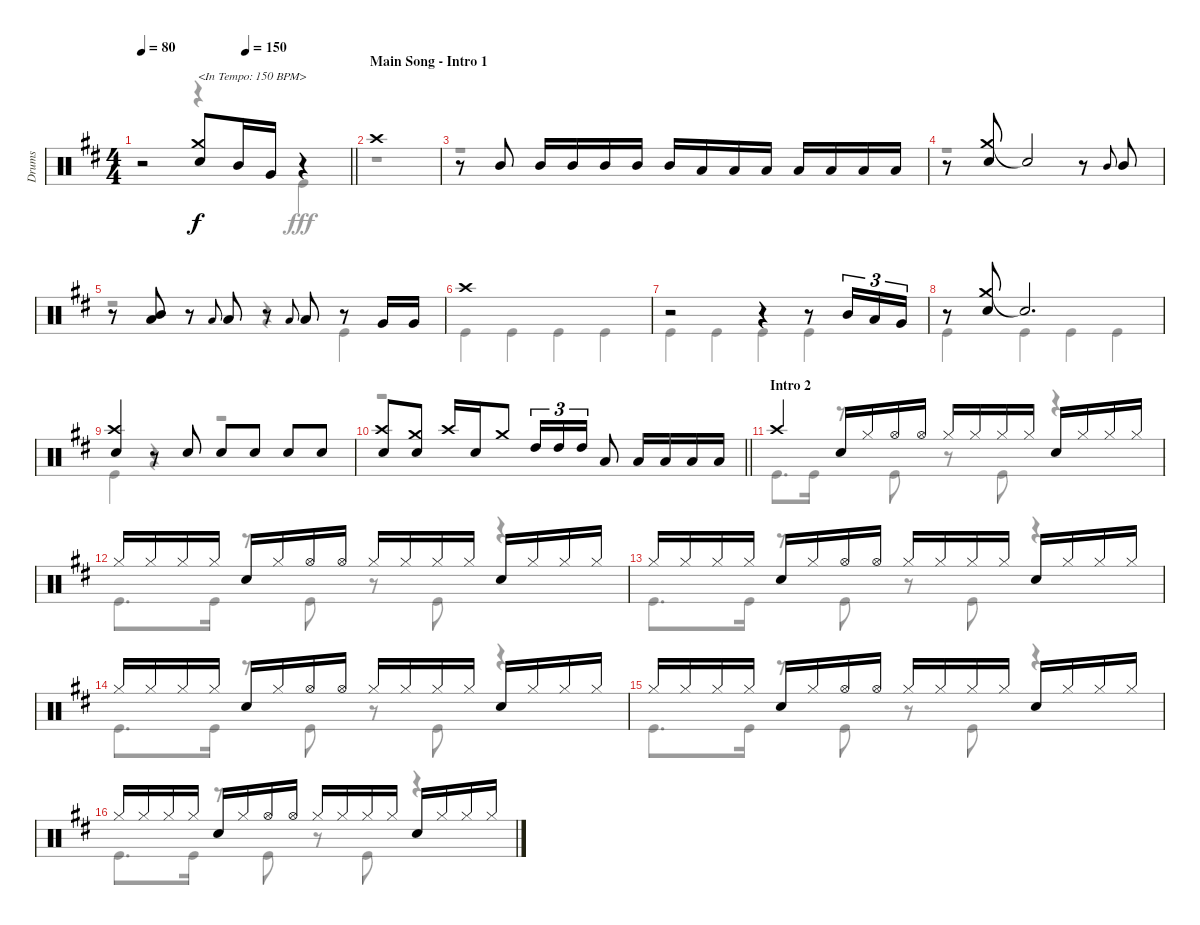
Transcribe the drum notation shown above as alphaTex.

\track ("Drums" "Drums") {instrument percussion}
\staff {score}
\articulation defaults
\voice
\ts (4 4)
\tempo 80
\tempo (150 0.5)
\clef neutral
\barLineRight lightlight
\ks d
r.2{dy f} ("Crash medium (hit)" "Snare (hit) 2").8{txt "<In Tempo: 150 BPM>"} "Mid Tom (hit)".16 "Very Low Tom (hit)".16 r.4 |
\section ("" "Main Song - Intro 1")
"Crash high (hit)".1 |
r.8 "Mid Tom (hit)".8 "Mid Tom (hit)".16 "Mid Tom (hit)".16 "Mid Tom (hit)".16 "Mid Tom (hit)".16 "Mid Tom (hit)".16 "Low Tom (hit)".16 "Low Tom (hit)".16 "Low Tom (hit)".16 "Low Tom (hit)".16 "Low Tom (hit)".16 "Low Tom (hit)".16 "Low Tom (hit)".16 |
r.8 ("Crash medium (hit)" "Snare (hit) 2").8 "Snare (hit)"{t}.2 r.8 "Mid Tom (hit)".8{gr onbeat} "Mid Tom (hit)".8 |
r.8 ("Low Tom (hit)" "Mid Tom (hit)").8 r.8 "Low Tom (hit)".8{gr onbeat} "Low Tom (hit)".8 r.8 "Low Tom (hit)".8{gr onbeat} "Low Tom (hit)".8 r.8 "Very Low Tom (hit)".16 "Very Low Tom (hit)".16 |
"Crash high (hit)".1 |
r.2 r.4 r.8 "Mid Tom (hit)".16{tu (3 2)} "Low Tom (hit)".16{tu (3 2)} "Very Low Tom (hit)".16{tu (3 2)} |
r.8 ("Crash medium (hit)" "Snare (hit) 2").8 "Snare (hit)"{t}.2{d} |
("Crash high (hit)" "Snare (hit) 2").4 r.8 "Snare (hit) 2".8 "Snare (hit) 2".8 "Snare (hit) 2".8 "Snare (hit) 2".8 "Snare (hit) 2".8 |
\barLineRight lightlight
("Crash high (hit)" "Snare (hit) 2").8 ("Crash medium (hit)" "Snare (hit) 2").8 "Crash high (hit)".16 "Snare (hit) 2".16 "Crash medium (hit)".8 "High Tom (hit)".16{tu (3 2)} "High Tom (hit)".16{tu (3 2)} "High Tom (hit)".16{tu (3 2)} "Low Tom (hit)".8 "Low Tom (hit)".16 "Low Tom (hit)".16 "Low Tom (hit)".16 "Low Tom (hit)".16 |
\section ("" "Intro 2")
"Crash high (hit)".4 "Snare (hit) 2".16 "Hi-Hat (closed)".16 "Hi-Hat (open)".16 "Hi-Hat (open)".16 "Hi-Hat (closed)".16 "Hi-Hat (closed)".16 "Hi-Hat (closed)".16 "Hi-Hat (closed)".16 "Snare (hit) 2".16 "Hi-Hat (closed)".16 "Hi-Hat (closed)".16 "Hi-Hat (closed)".16 |
"Hi-Hat (closed)".16 "Hi-Hat (closed)".16 "Hi-Hat (closed)".16 "Hi-Hat (closed)".16 "Snare (hit) 2".16 "Hi-Hat (closed)".16 "Hi-Hat (open)".16 "Hi-Hat (open)".16 "Hi-Hat (closed)".16 "Hi-Hat (closed)".16 "Hi-Hat (closed)".16 "Hi-Hat (closed)".16 "Snare (hit) 2".16 "Hi-Hat (closed)".16 "Hi-Hat (closed)".16 "Hi-Hat (closed)".16 |
"Hi-Hat (closed)".16 "Hi-Hat (closed)".16 "Hi-Hat (closed)".16 "Hi-Hat (closed)".16 "Snare (hit) 2".16 "Hi-Hat (closed)".16 "Hi-Hat (open)".16 "Hi-Hat (open)".16 "Hi-Hat (closed)".16 "Hi-Hat (closed)".16 "Hi-Hat (closed)".16 "Hi-Hat (closed)".16 "Snare (hit) 2".16 "Hi-Hat (closed)".16 "Hi-Hat (closed)".16 "Hi-Hat (closed)".16 |
"Hi-Hat (closed)".16 "Hi-Hat (closed)".16 "Hi-Hat (closed)".16 "Hi-Hat (closed)".16 "Snare (hit) 2".16 "Hi-Hat (closed)".16 "Hi-Hat (open)".16 "Hi-Hat (open)".16 "Hi-Hat (closed)".16 "Hi-Hat (closed)".16 "Hi-Hat (closed)".16 "Hi-Hat (closed)".16 "Snare (hit) 2".16 "Hi-Hat (closed)".16 "Hi-Hat (closed)".16 "Hi-Hat (closed)".16 |
"Hi-Hat (closed)".16 "Hi-Hat (closed)".16 "Hi-Hat (closed)".16 "Hi-Hat (closed)".16 "Snare (hit) 2".16 "Hi-Hat (closed)".16 "Hi-Hat (open)".16 "Hi-Hat (open)".16 "Hi-Hat (closed)".16 "Hi-Hat (closed)".16 "Hi-Hat (closed)".16 "Hi-Hat (closed)".16 "Snare (hit) 2".16 "Hi-Hat (closed)".16 "Hi-Hat (closed)".16 "Hi-Hat (closed)".16 |
"Hi-Hat (closed)".16 "Hi-Hat (closed)".16 "Hi-Hat (closed)".16 "Hi-Hat (closed)".16 "Snare (hit) 2".16 "Hi-Hat (closed)".16 "Hi-Hat (open)".16 "Hi-Hat (open)".16 "Hi-Hat (closed)".16 "Hi-Hat (closed)".16 "Hi-Hat (closed)".16 "Hi-Hat (closed)".16 "Snare (hit) 2".16 "Hi-Hat (closed)".16 "Hi-Hat (closed)".16 "Hi-Hat (closed)".16
\voice
\clef neutral
\ottava regular
\simile none
\barLineRight lightlight
\ks d
r.2{dy fff} r.4 "Kick (hit)".4 |
r.1 |
r.1 |
r.1 |
r.2 r.4 "Kick (hit)".4 |
"Kick (hit)".4 "Kick (hit)".4 "Kick (hit)".4 "Kick (hit)".4 |
"Kick (hit)".4 "Kick (hit)".4 "Kick (hit)".4 "Kick (hit)".4 |
"Kick (hit)".4 "Kick (hit)".4 "Kick (hit)".4 "Kick (hit)".4 |
"Kick (hit)".4 r.4 r.2 |
\barLineRight lightlight
r.1 |
"Kick (hit)".8{d} "Kick (hit)".16 r.8 "Kick (hit)".8 r.8 "Kick (hit)".8 r.4 |
"Kick (hit)".8{d} "Kick (hit)".16 r.8 "Kick (hit)".8 r.8 "Kick (hit)".8 r.4 |
"Kick (hit)".8{d} "Kick (hit)".16 r.8 "Kick (hit)".8 r.8 "Kick (hit)".8 r.4 |
"Kick (hit)".8{d} "Kick (hit)".16 r.8 "Kick (hit)".8 r.8 "Kick (hit)".8 r.4 |
"Kick (hit)".8{d} "Kick (hit)".16 r.8 "Kick (hit)".8 r.8 "Kick (hit)".8 r.4 |
"Kick (hit)".8{d} "Kick (hit)".16 r.8 "Kick (hit)".8 r.8 "Kick (hit)".8 r.4
